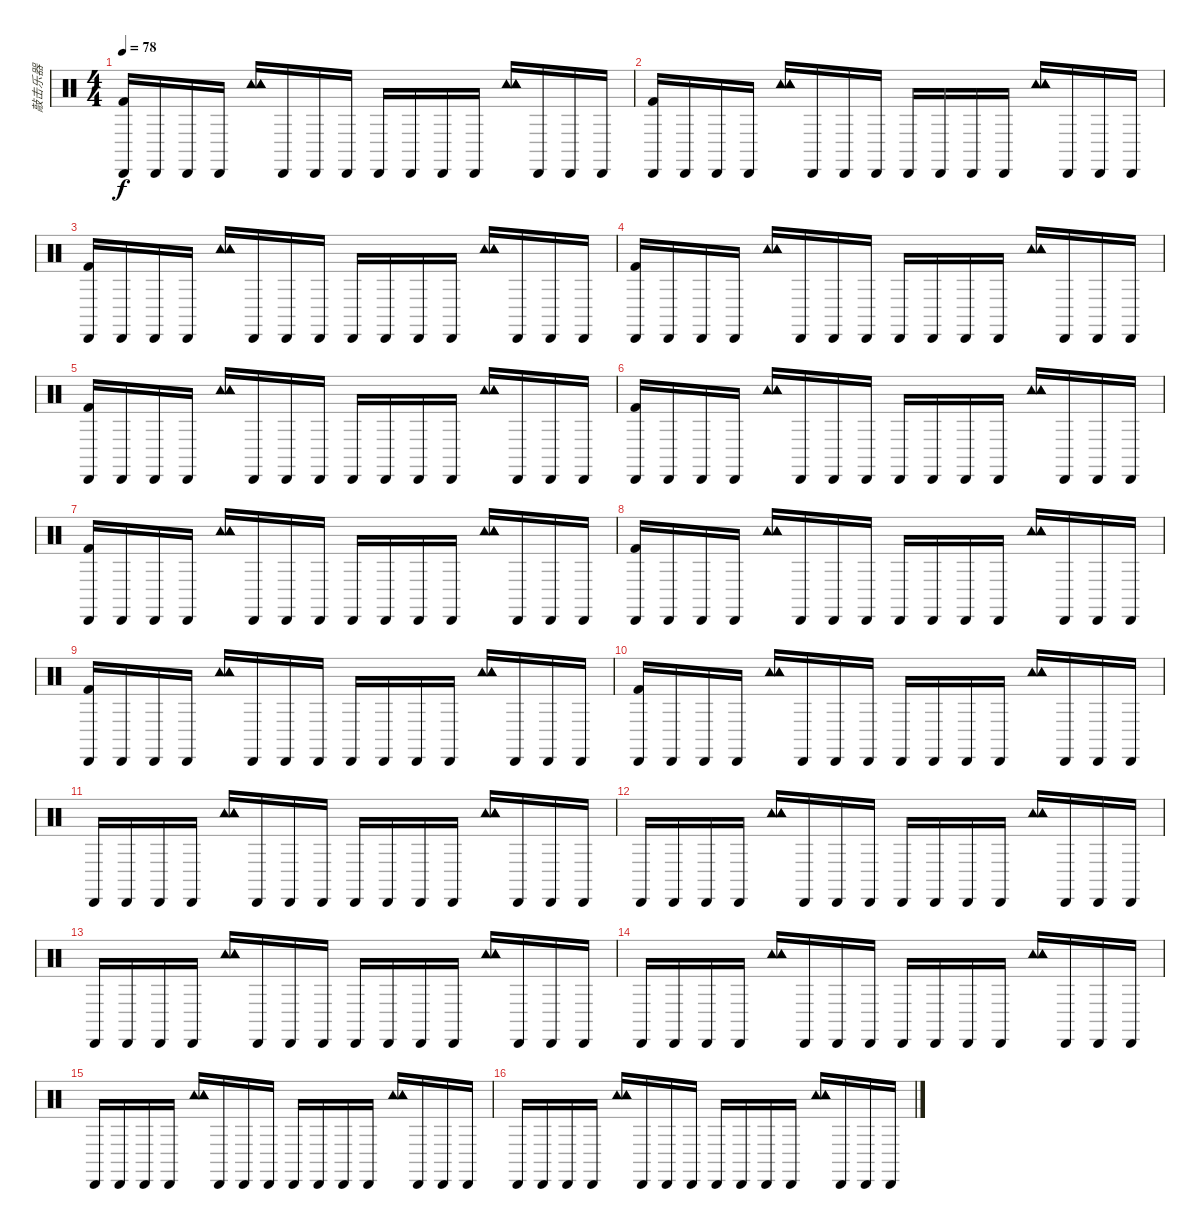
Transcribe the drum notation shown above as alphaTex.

\track ("敲击乐器" "敲击乐器") {instrument percussion}
\staff {score}
\articulation defaults
\ts (4 4)
\tempo 78
\clef neutral
\ks c
("Cabasa (hit)" "Kick (hit) 2").16{dy f} "Cabasa (hit)".16 "Cabasa (hit)".16 "Cabasa (hit)".16 ("Tambourine (hit)" "Tambourine (hit)" "Tambourine (hit)").16 "Cabasa (hit)".16 "Cabasa (hit)".16 "Cabasa (hit)".16 "Cabasa (hit)".16 "Cabasa (hit)".16 "Cabasa (hit)".16 "Cabasa (hit)".16 ("Tambourine (hit)" "Tambourine (hit)" "Tambourine (hit)").16 "Cabasa (hit)".16 "Cabasa (hit)".16 "Cabasa (hit)".16 |
("Cabasa (hit)" "Kick (hit) 2").16 "Cabasa (hit)".16 "Cabasa (hit)".16 "Cabasa (hit)".16 ("Tambourine (hit)" "Tambourine (hit)" "Tambourine (hit)").16 "Cabasa (hit)".16 "Cabasa (hit)".16 "Cabasa (hit)".16 "Cabasa (hit)".16 "Cabasa (hit)".16 "Cabasa (hit)".16 "Cabasa (hit)".16 ("Tambourine (hit)" "Tambourine (hit)" "Tambourine (hit)").16 "Cabasa (hit)".16 "Cabasa (hit)".16 "Cabasa (hit)".16 |
("Cabasa (hit)" "Kick (hit) 2").16 "Cabasa (hit)".16 "Cabasa (hit)".16 "Cabasa (hit)".16 ("Tambourine (hit)" "Tambourine (hit)" "Tambourine (hit)").16 "Cabasa (hit)".16 "Cabasa (hit)".16 "Cabasa (hit)".16 "Cabasa (hit)".16 "Cabasa (hit)".16 "Cabasa (hit)".16 "Cabasa (hit)".16 ("Tambourine (hit)" "Tambourine (hit)" "Tambourine (hit)").16 "Cabasa (hit)".16 "Cabasa (hit)".16 "Cabasa (hit)".16 |
("Cabasa (hit)" "Kick (hit) 2").16 "Cabasa (hit)".16 "Cabasa (hit)".16 "Cabasa (hit)".16 ("Tambourine (hit)" "Tambourine (hit)" "Tambourine (hit)").16 "Cabasa (hit)".16 "Cabasa (hit)".16 "Cabasa (hit)".16 "Cabasa (hit)".16 "Cabasa (hit)".16 "Cabasa (hit)".16 "Cabasa (hit)".16 ("Tambourine (hit)" "Tambourine (hit)" "Tambourine (hit)").16 "Cabasa (hit)".16 "Cabasa (hit)".16 "Cabasa (hit)".16 |
("Cabasa (hit)" "Kick (hit) 2").16 "Cabasa (hit)".16 "Cabasa (hit)".16 "Cabasa (hit)".16 ("Tambourine (hit)" "Tambourine (hit)" "Tambourine (hit)").16 "Cabasa (hit)".16 "Cabasa (hit)".16 "Cabasa (hit)".16 "Cabasa (hit)".16 "Cabasa (hit)".16 "Cabasa (hit)".16 "Cabasa (hit)".16 ("Tambourine (hit)" "Tambourine (hit)" "Tambourine (hit)").16 "Cabasa (hit)".16 "Cabasa (hit)".16 "Cabasa (hit)".16 |
("Cabasa (hit)" "Kick (hit) 2").16 "Cabasa (hit)".16 "Cabasa (hit)".16 "Cabasa (hit)".16 ("Tambourine (hit)" "Tambourine (hit)" "Tambourine (hit)").16 "Cabasa (hit)".16 "Cabasa (hit)".16 "Cabasa (hit)".16 "Cabasa (hit)".16 "Cabasa (hit)".16 "Cabasa (hit)".16 "Cabasa (hit)".16 ("Tambourine (hit)" "Tambourine (hit)" "Tambourine (hit)").16 "Cabasa (hit)".16 "Cabasa (hit)".16 "Cabasa (hit)".16 |
("Cabasa (hit)" "Kick (hit) 2").16 "Cabasa (hit)".16 "Cabasa (hit)".16 "Cabasa (hit)".16 ("Tambourine (hit)" "Tambourine (hit)" "Tambourine (hit)").16 "Cabasa (hit)".16 "Cabasa (hit)".16 "Cabasa (hit)".16 "Cabasa (hit)".16 "Cabasa (hit)".16 "Cabasa (hit)".16 "Cabasa (hit)".16 ("Tambourine (hit)" "Tambourine (hit)" "Tambourine (hit)").16 "Cabasa (hit)".16 "Cabasa (hit)".16 "Cabasa (hit)".16 |
("Cabasa (hit)" "Kick (hit) 2").16 "Cabasa (hit)".16 "Cabasa (hit)".16 "Cabasa (hit)".16 ("Tambourine (hit)" "Tambourine (hit)" "Tambourine (hit)").16 "Cabasa (hit)".16 "Cabasa (hit)".16 "Cabasa (hit)".16 "Cabasa (hit)".16 "Cabasa (hit)".16 "Cabasa (hit)".16 "Cabasa (hit)".16 ("Tambourine (hit)" "Tambourine (hit)" "Tambourine (hit)").16 "Cabasa (hit)".16 "Cabasa (hit)".16 "Cabasa (hit)".16 |
("Cabasa (hit)" "Kick (hit) 2").16 "Cabasa (hit)".16 "Cabasa (hit)".16 "Cabasa (hit)".16 ("Tambourine (hit)" "Tambourine (hit)" "Tambourine (hit)").16 "Cabasa (hit)".16 "Cabasa (hit)".16 "Cabasa (hit)".16 "Cabasa (hit)".16 "Cabasa (hit)".16 "Cabasa (hit)".16 "Cabasa (hit)".16 ("Tambourine (hit)" "Tambourine (hit)" "Tambourine (hit)").16 "Cabasa (hit)".16 "Cabasa (hit)".16 "Cabasa (hit)".16 |
("Cabasa (hit)" "Kick (hit) 2").16 "Cabasa (hit)".16 "Cabasa (hit)".16 "Cabasa (hit)".16 ("Tambourine (hit)" "Tambourine (hit)" "Tambourine (hit)").16 "Cabasa (hit)".16 "Cabasa (hit)".16 "Cabasa (hit)".16 "Cabasa (hit)".16 "Cabasa (hit)".16 "Cabasa (hit)".16 "Cabasa (hit)".16 ("Tambourine (hit)" "Tambourine (hit)" "Tambourine (hit)").16 "Cabasa (hit)".16 "Cabasa (hit)".16 "Cabasa (hit)".16 |
"Cabasa (hit)".16 "Cabasa (hit)".16 "Cabasa (hit)".16 "Cabasa (hit)".16 ("Tambourine (hit)" "Tambourine (hit)" "Tambourine (hit)").16 "Cabasa (hit)".16 "Cabasa (hit)".16 "Cabasa (hit)".16 "Cabasa (hit)".16 "Cabasa (hit)".16 "Cabasa (hit)".16 "Cabasa (hit)".16 ("Tambourine (hit)" "Tambourine (hit)" "Tambourine (hit)").16 "Cabasa (hit)".16 "Cabasa (hit)".16 "Cabasa (hit)".16 |
"Cabasa (hit)".16 "Cabasa (hit)".16 "Cabasa (hit)".16 "Cabasa (hit)".16 ("Tambourine (hit)" "Tambourine (hit)" "Tambourine (hit)").16 "Cabasa (hit)".16 "Cabasa (hit)".16 "Cabasa (hit)".16 "Cabasa (hit)".16 "Cabasa (hit)".16 "Cabasa (hit)".16 "Cabasa (hit)".16 ("Tambourine (hit)" "Tambourine (hit)" "Tambourine (hit)").16 "Cabasa (hit)".16 "Cabasa (hit)".16 "Cabasa (hit)".16 |
"Cabasa (hit)".16 "Cabasa (hit)".16 "Cabasa (hit)".16 "Cabasa (hit)".16 ("Tambourine (hit)" "Tambourine (hit)" "Tambourine (hit)").16 "Cabasa (hit)".16 "Cabasa (hit)".16 "Cabasa (hit)".16 "Cabasa (hit)".16 "Cabasa (hit)".16 "Cabasa (hit)".16 "Cabasa (hit)".16 ("Tambourine (hit)" "Tambourine (hit)" "Tambourine (hit)").16 "Cabasa (hit)".16 "Cabasa (hit)".16 "Cabasa (hit)".16 |
"Cabasa (hit)".16 "Cabasa (hit)".16 "Cabasa (hit)".16 "Cabasa (hit)".16 ("Tambourine (hit)" "Tambourine (hit)" "Tambourine (hit)").16 "Cabasa (hit)".16 "Cabasa (hit)".16 "Cabasa (hit)".16 "Cabasa (hit)".16 "Cabasa (hit)".16 "Cabasa (hit)".16 "Cabasa (hit)".16 ("Tambourine (hit)" "Tambourine (hit)" "Tambourine (hit)").16 "Cabasa (hit)".16 "Cabasa (hit)".16 "Cabasa (hit)".16 |
"Cabasa (hit)".16 "Cabasa (hit)".16 "Cabasa (hit)".16 "Cabasa (hit)".16 ("Tambourine (hit)" "Tambourine (hit)" "Tambourine (hit)").16 "Cabasa (hit)".16 "Cabasa (hit)".16 "Cabasa (hit)".16 "Cabasa (hit)".16 "Cabasa (hit)".16 "Cabasa (hit)".16 "Cabasa (hit)".16 ("Tambourine (hit)" "Tambourine (hit)" "Tambourine (hit)").16 "Cabasa (hit)".16 "Cabasa (hit)".16 "Cabasa (hit)".16 |
"Cabasa (hit)".16 "Cabasa (hit)".16 "Cabasa (hit)".16 "Cabasa (hit)".16 ("Tambourine (hit)" "Tambourine (hit)" "Tambourine (hit)").16 "Cabasa (hit)".16 "Cabasa (hit)".16 "Cabasa (hit)".16 "Cabasa (hit)".16 "Cabasa (hit)".16 "Cabasa (hit)".16 "Cabasa (hit)".16 ("Tambourine (hit)" "Tambourine (hit)" "Tambourine (hit)").16 "Cabasa (hit)".16 "Cabasa (hit)".16 "Cabasa (hit)".16
